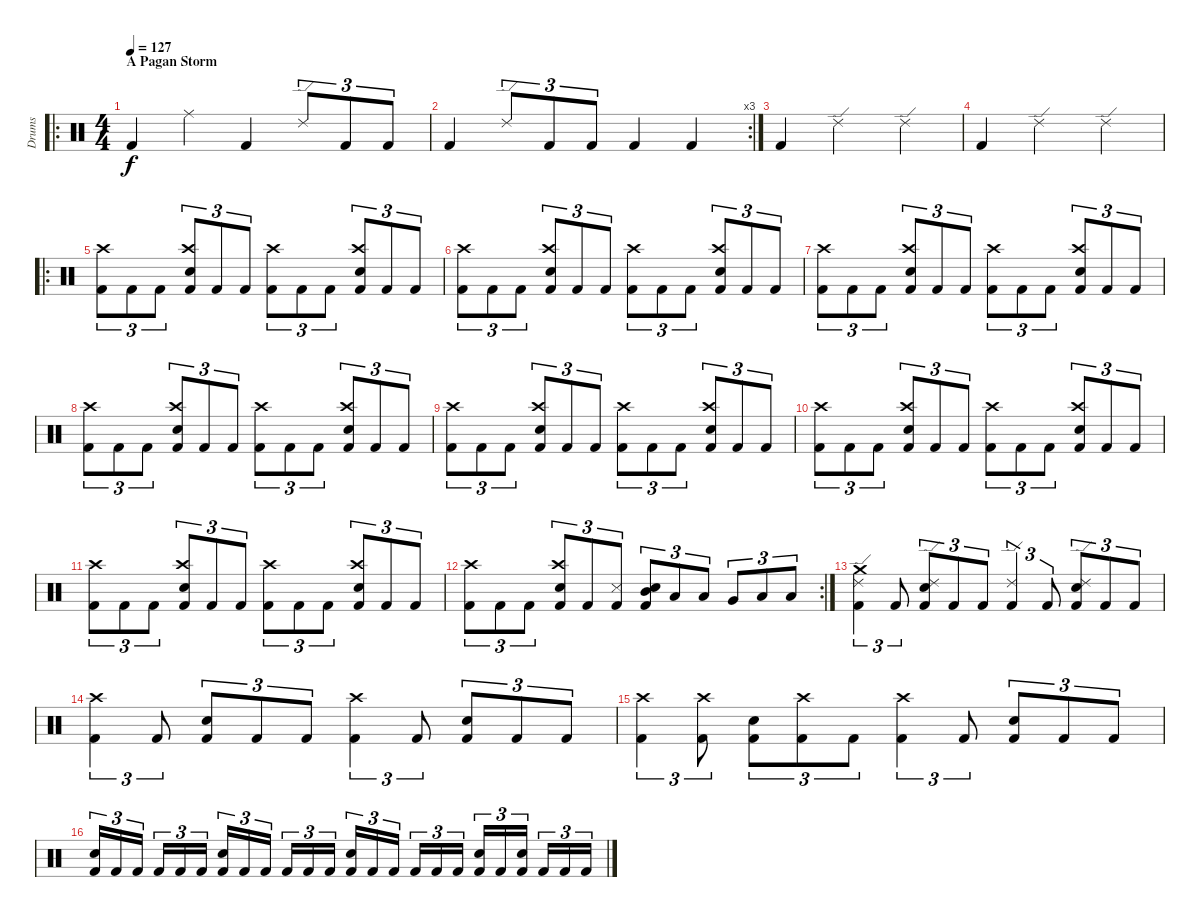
\track ("Drums" "Drums") {instrument percussion}
\staff {score}
\articulation defaults
\ro
\ts (4 4)
\section ("" "A Pagan Storm")
\tempo 127
\clef neutral
\ks c "Kick (hit) 2".4{dy f} "Ride (middle)".4 "Kick (hit) 2".4 "Ride (edge) 2".8{tu (3 2)} "Kick (hit) 2".8{tu (3 2)} "Kick (hit) 2".8{tu (3 2)}
|
\rc 3 "Kick (hit) 2".4 "Ride (edge) 2".8{tu (3 2)} "Kick (hit) 2".8{tu (3 2)} "Kick (hit) 2".8{tu (3 2)} "Kick (hit) 2".4 "Kick (hit) 2".4
|
"Kick (hit) 2".4 "Ride (edge) 2".2 "Ride (edge) 2".4 |
"Kick (hit) 2".4 "Ride (edge) 2".2 "Ride (edge) 2".4 |
\ro
("Kick (hit) 2" "Crash high (hit)").8{tu (3 2)} "Kick (hit) 2".8{tu (3 2)} "Kick (hit) 2".8{tu (3 2)} ("Kick (hit) 2" "Electric Snare (hit)" "Crash high (hit)").8{tu (3 2)} "Kick (hit) 2".8{tu (3 2)} "Kick (hit) 2".8{tu (3 2)} ("Kick (hit) 2" "Crash high (hit)").8{tu (3 2)} "Kick (hit) 2".8{tu (3 2)} "Kick (hit) 2".8{tu (3 2)} ("Kick (hit) 2" "Electric Snare (hit)" "Crash high (hit)").8{tu (3 2)} "Kick (hit) 2".8{tu (3 2)} "Kick (hit) 2".8{tu (3 2)} |
("Kick (hit) 2" "Crash high (hit)").8{tu (3 2)} "Kick (hit) 2".8{tu (3 2)} "Kick (hit) 2".8{tu (3 2)} ("Kick (hit) 2" "Electric Snare (hit)" "Crash high (hit)").8{tu (3 2)} "Kick (hit) 2".8{tu (3 2)} "Kick (hit) 2".8{tu (3 2)} ("Kick (hit) 2" "Crash high (hit)").8{tu (3 2)} "Kick (hit) 2".8{tu (3 2)} "Kick (hit) 2".8{tu (3 2)} ("Kick (hit) 2" "Electric Snare (hit)" "Crash high (hit)").8{tu (3 2)} "Kick (hit) 2".8{tu (3 2)} "Kick (hit) 2".8{tu (3 2)} |
("Kick (hit) 2" "Crash high (hit)").8{tu (3 2)} "Kick (hit) 2".8{tu (3 2)} "Kick (hit) 2".8{tu (3 2)} ("Kick (hit) 2" "Electric Snare (hit)" "Crash high (hit)").8{tu (3 2)} "Kick (hit) 2".8{tu (3 2)} "Kick (hit) 2".8{tu (3 2)} ("Kick (hit) 2" "Crash high (hit)").8{tu (3 2)} "Kick (hit) 2".8{tu (3 2)} "Kick (hit) 2".8{tu (3 2)} ("Kick (hit) 2" "Electric Snare (hit)" "Crash high (hit)").8{tu (3 2)} "Kick (hit) 2".8{tu (3 2)} "Kick (hit) 2".8{tu (3 2)} |
("Kick (hit) 2" "Crash high (hit)").8{tu (3 2)} "Kick (hit) 2".8{tu (3 2)} "Kick (hit) 2".8{tu (3 2)} ("Kick (hit) 2" "Electric Snare (hit)" "Crash high (hit)").8{tu (3 2)} "Kick (hit) 2".8{tu (3 2)} "Kick (hit) 2".8{tu (3 2)} ("Kick (hit) 2" "Crash high (hit)").8{tu (3 2)} "Kick (hit) 2".8{tu (3 2)} "Kick (hit) 2".8{tu (3 2)} ("Kick (hit) 2" "Electric Snare (hit)" "Crash high (hit)").8{tu (3 2)} "Kick (hit) 2".8{tu (3 2)} "Kick (hit) 2".8{tu (3 2)} |
("Kick (hit) 2" "Crash high (hit)").8{tu (3 2)} "Kick (hit) 2".8{tu (3 2)} "Kick (hit) 2".8{tu (3 2)} ("Kick (hit) 2" "Electric Snare (hit)" "Crash high (hit)").8{tu (3 2)} "Kick (hit) 2".8{tu (3 2)} "Kick (hit) 2".8{tu (3 2)} ("Kick (hit) 2" "Crash high (hit)").8{tu (3 2)} "Kick (hit) 2".8{tu (3 2)} "Kick (hit) 2".8{tu (3 2)} ("Kick (hit) 2" "Electric Snare (hit)" "Crash high (hit)").8{tu (3 2)} "Kick (hit) 2".8{tu (3 2)} "Kick (hit) 2".8{tu (3 2)} |
("Kick (hit) 2" "Crash high (hit)").8{tu (3 2)} "Kick (hit) 2".8{tu (3 2)} "Kick (hit) 2".8{tu (3 2)} ("Kick (hit) 2" "Electric Snare (hit)" "Crash high (hit)").8{tu (3 2)} "Kick (hit) 2".8{tu (3 2)} "Kick (hit) 2".8{tu (3 2)} ("Kick (hit) 2" "Crash high (hit)").8{tu (3 2)} "Kick (hit) 2".8{tu (3 2)} "Kick (hit) 2".8{tu (3 2)} ("Kick (hit) 2" "Electric Snare (hit)" "Crash high (hit)").8{tu (3 2)} "Kick (hit) 2".8{tu (3 2)} "Kick (hit) 2".8{tu (3 2)} |
("Kick (hit) 2" "Crash high (hit)").8{tu (3 2)} "Kick (hit) 2".8{tu (3 2)} "Kick (hit) 2".8{tu (3 2)} ("Kick (hit) 2" "Electric Snare (hit)" "Crash high (hit)").8{tu (3 2)} "Kick (hit) 2".8{tu (3 2)} "Kick (hit) 2".8{tu (3 2)} ("Kick (hit) 2" "Crash high (hit)").8{tu (3 2)} "Kick (hit) 2".8{tu (3 2)} "Kick (hit) 2".8{tu (3 2)} ("Kick (hit) 2" "Electric Snare (hit)" "Crash high (hit)").8{tu (3 2)} "Kick (hit) 2".8{tu (3 2)} "Kick (hit) 2".8{tu (3 2)} |
\rc 2
("Kick (hit) 2" "Crash high (hit)").8{tu (3 2)} "Kick (hit) 2".8{tu (3 2)} "Kick (hit) 2".8{tu (3 2)} ("Kick (hit) 2" "Electric Snare (hit)" "Crash high (hit)").8{tu (3 2)} "Kick (hit) 2".8{tu (3 2)} ("Kick (hit) 2" "Snare (side stick) 3").8{tu (3 2)} ("Kick (hit) 2" "Electric Snare (hit)" "Mid Tom (hit)").8{tu (3 2)} "Low Tom (hit)".8{tu (3 2)} "Low Tom (hit)".8{tu (3 2)} "Very Low Tom (hit)".8{tu (3 2)} "Low Floor Tom (hit)".8{tu (3 2)} "Low Floor Tom (hit)".8{tu (3 2)} |
("Kick (hit) 2" "Crash medium (hit)" "Ride (edge) 2").4{tu (3 2)} "Kick (hit) 2".8{tu (3 2)} ("Kick (hit) 2" "Electric Snare (hit)" "Ride (edge) 2").8{tu (3 2)} "Kick (hit) 2".8{tu (3 2)} "Kick (hit) 2".8{tu (3 2)} ("Kick (hit) 2" "Ride (edge) 2").4{tu (3 2)} "Kick (hit) 2".8{tu (3 2)} ("Kick (hit) 2" "Electric Snare (hit)" "Ride (edge) 2").8{tu (3 2)} "Kick (hit) 2".8{tu (3 2)} "Kick (hit) 2".8{tu (3 2)} |
("Kick (hit) 2" "Crash high (hit)").4{tu (3 2)} "Kick (hit) 2".8{tu (3 2)} ("Kick (hit) 2" "Electric Snare (hit)").8{tu (3 2)} "Kick (hit) 2".8{tu (3 2)} "Kick (hit) 2".8{tu (3 2)} ("Kick (hit) 2" "Crash high (hit)").4{tu (3 2)} "Kick (hit) 2".8{tu (3 2)} ("Kick (hit) 2" "Electric Snare (hit)").8{tu (3 2)} "Kick (hit) 2".8{tu (3 2)} "Kick (hit) 2".8{tu (3 2)} |
("Kick (hit) 2" "Crash high (hit)").4{tu (3 2)} ("Kick (hit) 2" "Crash high (hit)").8{tu (3 2)} ("Kick (hit) 2" "Electric Snare (hit)").8{tu (3 2)} ("Kick (hit) 2" "Crash high (hit)").8{tu (3 2)} "Kick (hit) 2".8{tu (3 2)} ("Kick (hit) 2" "Crash high (hit)").4{tu (3 2)} "Kick (hit) 2".8{tu (3 2)} ("Kick (hit) 2" "Electric Snare (hit)").8{tu (3 2)} "Kick (hit) 2".8{tu (3 2)} "Kick (hit) 2".8{tu (3 2)} |
("Kick (hit) 2" "Electric Snare (hit)").16{tu (3 2)} "Kick (hit) 2".16{tu (3 2)} "Kick (hit) 2".16{tu (3 2) beam splitsecondary} "Kick (hit) 2".16{tu (3 2)} "Kick (hit) 2".16{tu (3 2)} "Kick (hit) 2".16{tu (3 2)} ("Kick (hit) 2" "Electric Snare (hit)").16{tu (3 2)} "Kick (hit) 2".16{tu (3 2)} "Kick (hit) 2".16{tu (3 2) beam splitsecondary} "Kick (hit) 2".16{tu (3 2)} "Kick (hit) 2".16{tu (3 2)} "Kick (hit) 2".16{tu (3 2)} ("Kick (hit) 2" "Electric Snare (hit)").16{tu (3 2)} "Kick (hit) 2".16{tu (3 2)} "Kick (hit) 2".16{tu (3 2) beam splitsecondary} "Kick (hit) 2".16{tu (3 2)} "Kick (hit) 2".16{tu (3 2)} "Kick (hit) 2".16{tu (3 2)} ("Kick (hit) 2" "Electric Snare (hit)").16{tu (3 2)} "Kick (hit) 2".16{tu (3 2)} ("Kick (hit) 2" "Electric Snare (hit)").16{tu (3 2) beam splitsecondary} "Kick (hit) 2".16{tu (3 2)} "Kick (hit) 2".16{tu (3 2)} "Kick (hit) 2".16{tu (3 2)}
